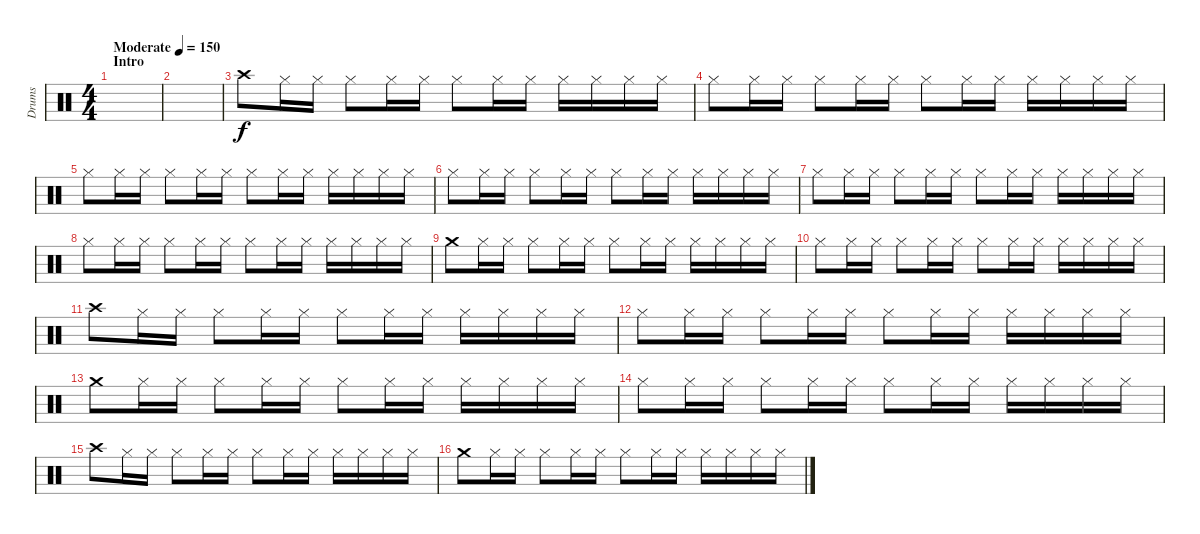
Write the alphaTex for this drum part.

\track ("Drums" "Drums") {instrument percussion}
\staff {score}
\articulation defaults
\ts (4 4)
\section ("" "Intro")
\tempo (150 "Moderate")
\clef neutral
\ks c
|
|
"Crash high (hit)".8 "Hi-Hat (closed)".16 "Hi-Hat (closed)".16 "Hi-Hat (closed)".8 "Hi-Hat (closed)".16 "Hi-Hat (closed)".16 "Hi-Hat (closed)".8 "Hi-Hat (closed)".16 "Hi-Hat (closed)".16 "Hi-Hat (closed)".16 "Hi-Hat (closed)".16 "Hi-Hat (closed)".16 "Hi-Hat (closed)".16 |
"Hi-Hat (closed)".8 "Hi-Hat (closed)".16 "Hi-Hat (closed)".16 "Hi-Hat (closed)".8 "Hi-Hat (closed)".16 "Hi-Hat (closed)".16 "Hi-Hat (closed)".8 "Hi-Hat (closed)".16 "Hi-Hat (closed)".16 "Hi-Hat (closed)".16 "Hi-Hat (closed)".16 "Hi-Hat (closed)".16 "Hi-Hat (closed)".16 |
"Hi-Hat (closed)".8 "Hi-Hat (closed)".16 "Hi-Hat (closed)".16 "Hi-Hat (closed)".8 "Hi-Hat (closed)".16 "Hi-Hat (closed)".16 "Hi-Hat (closed)".8 "Hi-Hat (closed)".16 "Hi-Hat (closed)".16 "Hi-Hat (closed)".16 "Hi-Hat (closed)".16 "Hi-Hat (closed)".16 "Hi-Hat (closed)".16 |
"Hi-Hat (closed)".8 "Hi-Hat (closed)".16 "Hi-Hat (closed)".16 "Hi-Hat (closed)".8 "Hi-Hat (closed)".16 "Hi-Hat (closed)".16 "Hi-Hat (closed)".8 "Hi-Hat (closed)".16 "Hi-Hat (closed)".16 "Hi-Hat (closed)".16 "Hi-Hat (closed)".16 "Hi-Hat (closed)".16 "Hi-Hat (closed)".16 |
"Hi-Hat (closed)".8 "Hi-Hat (closed)".16 "Hi-Hat (closed)".16 "Hi-Hat (closed)".8 "Hi-Hat (closed)".16 "Hi-Hat (closed)".16 "Hi-Hat (closed)".8 "Hi-Hat (closed)".16 "Hi-Hat (closed)".16 "Hi-Hat (closed)".16 "Hi-Hat (closed)".16 "Hi-Hat (closed)".16 "Hi-Hat (closed)".16 |
"Hi-Hat (closed)".8 "Hi-Hat (closed)".16 "Hi-Hat (closed)".16 "Hi-Hat (closed)".8 "Hi-Hat (closed)".16 "Hi-Hat (closed)".16 "Hi-Hat (closed)".8 "Hi-Hat (closed)".16 "Hi-Hat (closed)".16 "Hi-Hat (closed)".16 "Hi-Hat (closed)".16 "Hi-Hat (closed)".16 "Hi-Hat (closed)".16 |
"Crash medium (hit)".8 "Hi-Hat (closed)".16 "Hi-Hat (closed)".16 "Hi-Hat (closed)".8 "Hi-Hat (closed)".16 "Hi-Hat (closed)".16 "Hi-Hat (closed)".8 "Hi-Hat (closed)".16 "Hi-Hat (closed)".16 "Hi-Hat (closed)".16 "Hi-Hat (closed)".16 "Hi-Hat (closed)".16 "Hi-Hat (closed)".16 |
"Hi-Hat (closed)".8 "Hi-Hat (closed)".16 "Hi-Hat (closed)".16 "Hi-Hat (closed)".8 "Hi-Hat (closed)".16 "Hi-Hat (closed)".16 "Hi-Hat (closed)".8 "Hi-Hat (closed)".16 "Hi-Hat (closed)".16 "Hi-Hat (closed)".16 "Hi-Hat (closed)".16 "Hi-Hat (closed)".16 "Hi-Hat (closed)".16 |
"Crash high (hit)".8 "Hi-Hat (closed)".16 "Hi-Hat (closed)".16 "Hi-Hat (closed)".8 "Hi-Hat (closed)".16 "Hi-Hat (closed)".16 "Hi-Hat (closed)".8 "Hi-Hat (closed)".16 "Hi-Hat (closed)".16 "Hi-Hat (closed)".16 "Hi-Hat (closed)".16 "Hi-Hat (closed)".16 "Hi-Hat (closed)".16 |
"Hi-Hat (closed)".8 "Hi-Hat (closed)".16 "Hi-Hat (closed)".16 "Hi-Hat (closed)".8 "Hi-Hat (closed)".16 "Hi-Hat (closed)".16 "Hi-Hat (closed)".8 "Hi-Hat (closed)".16 "Hi-Hat (closed)".16 "Hi-Hat (closed)".16 "Hi-Hat (closed)".16 "Hi-Hat (closed)".16 "Hi-Hat (closed)".16 |
"Crash medium (hit)".8 "Hi-Hat (closed)".16 "Hi-Hat (closed)".16 "Hi-Hat (closed)".8 "Hi-Hat (closed)".16 "Hi-Hat (closed)".16 "Hi-Hat (closed)".8 "Hi-Hat (closed)".16 "Hi-Hat (closed)".16 "Hi-Hat (closed)".16 "Hi-Hat (closed)".16 "Hi-Hat (closed)".16 "Hi-Hat (closed)".16 |
"Hi-Hat (closed)".8 "Hi-Hat (closed)".16 "Hi-Hat (closed)".16 "Hi-Hat (closed)".8 "Hi-Hat (closed)".16 "Hi-Hat (closed)".16 "Hi-Hat (closed)".8 "Hi-Hat (closed)".16 "Hi-Hat (closed)".16 "Hi-Hat (closed)".16 "Hi-Hat (closed)".16 "Hi-Hat (closed)".16 "Hi-Hat (closed)".16 |
"Crash high (hit)".8 "Hi-Hat (closed)".16 "Hi-Hat (closed)".16 "Hi-Hat (closed)".8 "Hi-Hat (closed)".16 "Hi-Hat (closed)".16 "Hi-Hat (closed)".8 "Hi-Hat (closed)".16 "Hi-Hat (closed)".16 "Hi-Hat (closed)".16 "Hi-Hat (closed)".16 "Hi-Hat (closed)".16 "Hi-Hat (closed)".16 |
"Crash medium (hit)".8 "Hi-Hat (closed)".16 "Hi-Hat (closed)".16 "Hi-Hat (closed)".8 "Hi-Hat (closed)".16 "Hi-Hat (closed)".16 "Hi-Hat (closed)".8 "Hi-Hat (closed)".16 "Hi-Hat (closed)".16 "Hi-Hat (closed)".16 "Hi-Hat (closed)".16 "Hi-Hat (closed)".16 "Hi-Hat (closed)".16
